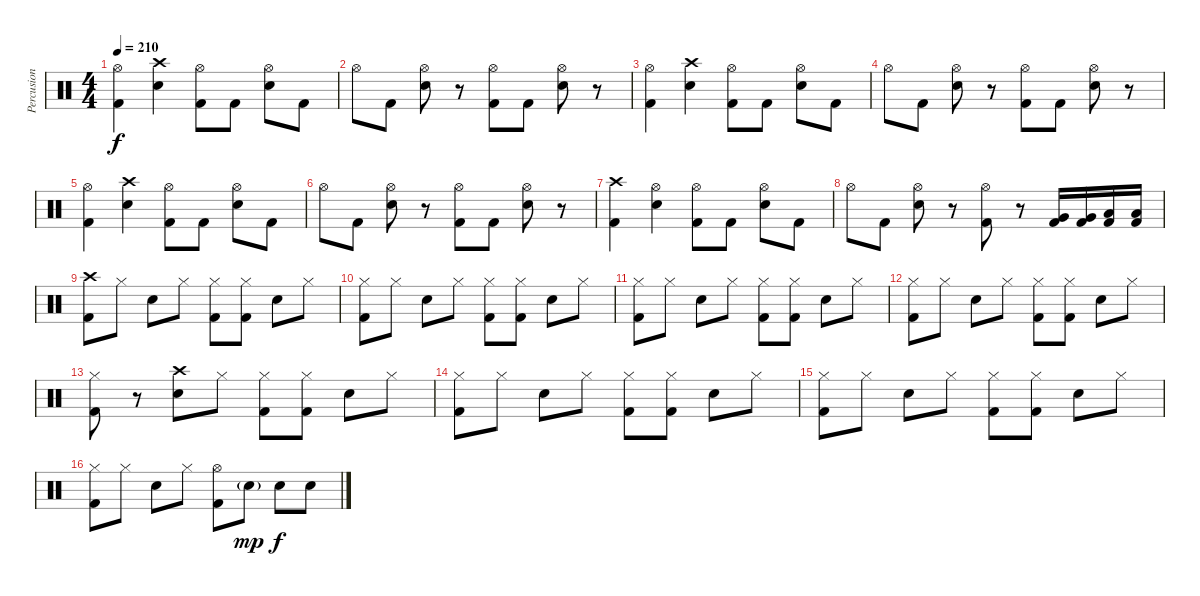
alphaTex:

\track ("Percusion" "Percusion") {instrument percussion}
\staff {score}
\articulation defaults
\ts (4 4)
\tempo 210
\clef neutral
\ks c
("Hi-Hat (open)" "Kick (hit) 2").4{dy f} ("Crash high (hit)" "Snare (hit) 2").4 ("Hi-Hat (open)" "Kick (hit) 2").8 "Kick (hit) 2".8 ("Hi-Hat (open)" "Snare (hit) 2").8 "Kick (hit) 2".8 |
"Hi-Hat (open)".8 "Kick (hit) 2".8 ("Hi-Hat (open)" "Snare (hit) 2").8 r.8 ("Hi-Hat (open)" "Kick (hit) 2").8 "Kick (hit) 2".8 ("Hi-Hat (open)" "Snare (hit) 2").8 r.8 |
("Hi-Hat (open)" "Kick (hit) 2").4 ("Crash high (hit)" "Snare (hit) 2").4 ("Hi-Hat (open)" "Kick (hit) 2").8 "Kick (hit) 2".8 ("Hi-Hat (open)" "Snare (hit) 2").8 "Kick (hit) 2".8 |
"Hi-Hat (open)".8 "Kick (hit) 2".8 ("Hi-Hat (open)" "Snare (hit) 2").8 r.8 ("Hi-Hat (open)" "Kick (hit) 2").8 "Kick (hit) 2".8 ("Hi-Hat (open)" "Snare (hit) 2").8 r.8 |
("Hi-Hat (open)" "Kick (hit) 2").4 ("Crash high (hit)" "Snare (hit) 2").4 ("Hi-Hat (open)" "Kick (hit) 2").8 "Kick (hit) 2".8 ("Hi-Hat (open)" "Snare (hit) 2").8 "Kick (hit) 2".8 |
"Hi-Hat (open)".8 "Kick (hit) 2".8 ("Hi-Hat (open)" "Snare (hit) 2").8 r.8 ("Hi-Hat (open)" "Kick (hit) 2").8 "Kick (hit) 2".8 ("Hi-Hat (open)" "Snare (hit) 2").8 r.8 |
("Crash high (hit)" "Kick (hit) 2").4 ("Hi-Hat (open)" "Snare (hit) 2").4 ("Hi-Hat (open)" "Kick (hit) 2").8 "Kick (hit) 2".8 ("Hi-Hat (open)" "Snare (hit) 2").8 "Kick (hit) 2".8 |
"Hi-Hat (open)".8 "Kick (hit) 2".8 ("Hi-Hat (open)" "Snare (hit) 2").8 r.8 ("Hi-Hat (open)" "Kick (hit) 2").8 r.8 ("Very Low Tom (hit)" "Kick (hit) 2").16 ("Very Low Tom (hit)" "Kick (hit) 2").16 ("Low Floor Tom (hit)" "Kick (hit) 2").16 ("Low Floor Tom (hit)" "Kick (hit) 2").16 |
("Crash high (hit)" "Kick (hit) 2").8 "Hi-Hat (closed)".8 "Snare (hit) 2".8 "Hi-Hat (closed)".8 ("Hi-Hat (closed)" "Kick (hit) 2").8 ("Hi-Hat (closed)" "Kick (hit) 2").8 "Snare (hit) 2".8 "Hi-Hat (closed)".8 |
("Hi-Hat (closed)" "Kick (hit) 2").8 "Hi-Hat (closed)".8 "Snare (hit) 2".8 "Hi-Hat (closed)".8 ("Hi-Hat (closed)" "Kick (hit) 2").8 ("Hi-Hat (closed)" "Kick (hit) 2").8 "Snare (hit) 2".8 "Hi-Hat (closed)".8 |
("Hi-Hat (closed)" "Kick (hit) 2").8 "Hi-Hat (closed)".8 "Snare (hit) 2".8 "Hi-Hat (closed)".8 ("Hi-Hat (closed)" "Kick (hit) 2").8 ("Hi-Hat (closed)" "Kick (hit) 2").8 "Snare (hit) 2".8 "Hi-Hat (closed)".8 |
("Hi-Hat (closed)" "Kick (hit) 2").8 "Hi-Hat (closed)".8 "Snare (hit) 2".8 "Hi-Hat (closed)".8 ("Hi-Hat (closed)" "Kick (hit) 2").8 ("Hi-Hat (closed)" "Kick (hit) 2").8 "Snare (hit) 2".8 "Hi-Hat (closed)".8 |
("Hi-Hat (closed)" "Kick (hit) 2").8 r.8 ("Crash high (hit)" "Snare (hit) 2").8 "Hi-Hat (closed)".8 ("Hi-Hat (closed)" "Kick (hit) 2").8 ("Hi-Hat (closed)" "Kick (hit) 2").8 "Snare (hit) 2".8 "Hi-Hat (closed)".8 |
("Hi-Hat (closed)" "Kick (hit) 2").8 "Hi-Hat (closed)".8 "Snare (hit) 2".8 "Hi-Hat (closed)".8 ("Hi-Hat (closed)" "Kick (hit) 2").8 ("Hi-Hat (closed)" "Kick (hit) 2").8 "Snare (hit) 2".8 "Hi-Hat (closed)".8 |
("Hi-Hat (closed)" "Kick (hit) 2").8 "Hi-Hat (closed)".8 "Snare (hit) 2".8 "Hi-Hat (closed)".8 ("Hi-Hat (closed)" "Kick (hit) 2").8 ("Hi-Hat (closed)" "Kick (hit) 2").8 "Snare (hit) 2".8 "Hi-Hat (closed)".8 |
("Hi-Hat (closed)" "Kick (hit) 2").8 "Hi-Hat (closed)".8 "Snare (hit) 2".8 "Hi-Hat (closed)".8 ("Hi-Hat (open)" "Kick (hit) 2").8 "Snare (hit) 2"{g}.8{dy mp} "Snare (hit) 2".8{dy f} "Snare (hit) 2".8
